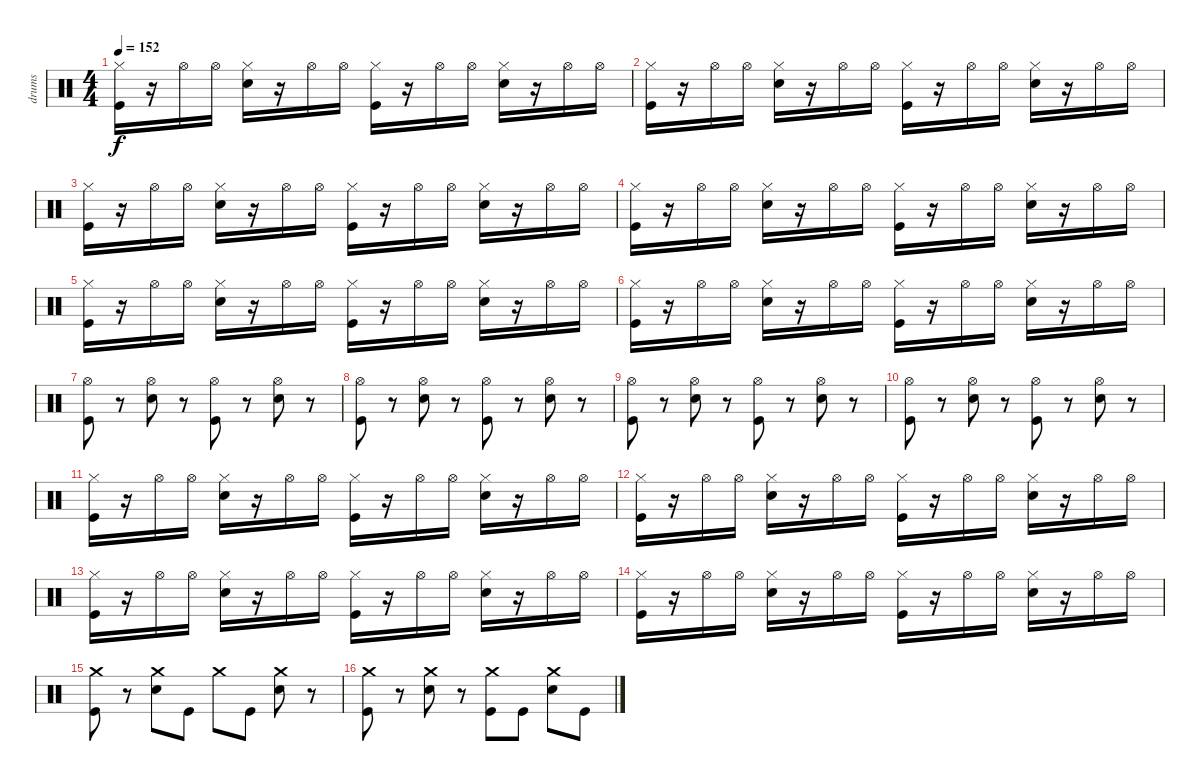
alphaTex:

\track ("drums" "drums") {instrument percussion}
\staff {score}
\articulation defaults
\ts (4 4)
\tempo 152
\clef neutral
\ks c
("Hi-Hat (closed)" "Kick (hit)").16{dy f} r.16 "Hi-Hat (open)".16 "Hi-Hat (open)".16 ("Hi-Hat (closed)" "Snare (hit) 2").16 r.16 "Hi-Hat (open)".16 "Hi-Hat (open)".16 ("Hi-Hat (closed)" "Kick (hit)").16 r.16 "Hi-Hat (open)".16 "Hi-Hat (open)".16 ("Hi-Hat (closed)" "Snare (hit) 2").16 r.16 "Hi-Hat (open)".16 "Hi-Hat (open)".16 |
("Hi-Hat (closed)" "Kick (hit)").16 r.16 "Hi-Hat (open)".16 "Hi-Hat (open)".16 ("Hi-Hat (closed)" "Snare (hit) 2").16 r.16 "Hi-Hat (open)".16 "Hi-Hat (open)".16 ("Hi-Hat (closed)" "Kick (hit)").16 r.16 "Hi-Hat (open)".16 "Hi-Hat (open)".16 ("Hi-Hat (closed)" "Snare (hit) 2").16 r.16 "Hi-Hat (open)".16 "Hi-Hat (open)".16 |
("Hi-Hat (closed)" "Kick (hit)").16 r.16 "Hi-Hat (open)".16 "Hi-Hat (open)".16 ("Hi-Hat (closed)" "Snare (hit) 2").16 r.16 "Hi-Hat (open)".16 "Hi-Hat (open)".16 ("Hi-Hat (closed)" "Kick (hit)").16 r.16 "Hi-Hat (open)".16 "Hi-Hat (open)".16 ("Hi-Hat (closed)" "Snare (hit) 2").16 r.16 "Hi-Hat (open)".16 "Hi-Hat (open)".16 |
("Hi-Hat (closed)" "Kick (hit)").16 r.16 "Hi-Hat (open)".16 "Hi-Hat (open)".16 ("Hi-Hat (closed)" "Snare (hit) 2").16 r.16 "Hi-Hat (open)".16 "Hi-Hat (open)".16 ("Hi-Hat (closed)" "Kick (hit)").16 r.16 "Hi-Hat (open)".16 "Hi-Hat (open)".16 ("Hi-Hat (closed)" "Snare (hit) 2").16 r.16 "Hi-Hat (open)".16 "Hi-Hat (open)".16 |
("Hi-Hat (closed)" "Kick (hit)").16 r.16 "Hi-Hat (open)".16 "Hi-Hat (open)".16 ("Hi-Hat (closed)" "Snare (hit) 2").16 r.16 "Hi-Hat (open)".16 "Hi-Hat (open)".16 ("Hi-Hat (closed)" "Kick (hit)").16 r.16 "Hi-Hat (open)".16 "Hi-Hat (open)".16 ("Hi-Hat (closed)" "Snare (hit) 2").16 r.16 "Hi-Hat (open)".16 "Hi-Hat (open)".16 |
("Hi-Hat (closed)" "Kick (hit)").16 r.16 "Hi-Hat (open)".16 "Hi-Hat (open)".16 ("Hi-Hat (closed)" "Snare (hit) 2").16 r.16 "Hi-Hat (open)".16 "Hi-Hat (open)".16 ("Hi-Hat (closed)" "Kick (hit)").16 r.16 "Hi-Hat (open)".16 "Hi-Hat (open)".16 ("Hi-Hat (closed)" "Snare (hit) 2").16 r.16 "Hi-Hat (open)".16 "Hi-Hat (open)".16 |
("Hi-Hat (open)" "Kick (hit)").8 r.8 ("Hi-Hat (open)" "Snare (hit) 2").8 r.8 ("Hi-Hat (open)" "Kick (hit)").8 r.8 ("Hi-Hat (open)" "Snare (hit) 2").8 r.8 |
("Hi-Hat (open)" "Kick (hit)").8 r.8 ("Hi-Hat (open)" "Snare (hit) 2").8 r.8 ("Hi-Hat (open)" "Kick (hit)").8 r.8 ("Hi-Hat (open)" "Snare (hit) 2").8 r.8 |
("Hi-Hat (open)" "Kick (hit)").8 r.8 ("Hi-Hat (open)" "Snare (hit) 2").8 r.8 ("Hi-Hat (open)" "Kick (hit)").8 r.8 ("Hi-Hat (open)" "Snare (hit) 2").8 r.8 |
("Hi-Hat (open)" "Kick (hit)").8 r.8 ("Hi-Hat (open)" "Snare (hit) 2").8 r.8 ("Hi-Hat (open)" "Kick (hit)").8 r.8 ("Hi-Hat (open)" "Snare (hit) 2").8 r.8 |
("Hi-Hat (closed)" "Kick (hit)").16 r.16 "Hi-Hat (open)".16 "Hi-Hat (open)".16 ("Hi-Hat (closed)" "Snare (hit) 2").16 r.16 "Hi-Hat (open)".16 "Hi-Hat (open)".16 ("Hi-Hat (closed)" "Kick (hit)").16 r.16 "Hi-Hat (open)".16 "Hi-Hat (open)".16 ("Hi-Hat (closed)" "Snare (hit) 2").16 r.16 "Hi-Hat (open)".16 "Hi-Hat (open)".16 |
("Hi-Hat (closed)" "Kick (hit)").16 r.16 "Hi-Hat (open)".16 "Hi-Hat (open)".16 ("Hi-Hat (closed)" "Snare (hit) 2").16 r.16 "Hi-Hat (open)".16 "Hi-Hat (open)".16 ("Hi-Hat (closed)" "Kick (hit)").16 r.16 "Hi-Hat (open)".16 "Hi-Hat (open)".16 ("Hi-Hat (closed)" "Snare (hit) 2").16 r.16 "Hi-Hat (open)".16 "Hi-Hat (open)".16 |
("Hi-Hat (closed)" "Kick (hit)").16 r.16 "Hi-Hat (open)".16 "Hi-Hat (open)".16 ("Hi-Hat (closed)" "Snare (hit) 2").16 r.16 "Hi-Hat (open)".16 "Hi-Hat (open)".16 ("Hi-Hat (closed)" "Kick (hit)").16 r.16 "Hi-Hat (open)".16 "Hi-Hat (open)".16 ("Hi-Hat (closed)" "Snare (hit) 2").16 r.16 "Hi-Hat (open)".16 "Hi-Hat (open)".16 |
("Hi-Hat (closed)" "Kick (hit)").16 r.16 "Hi-Hat (open)".16 "Hi-Hat (open)".16 ("Hi-Hat (closed)" "Snare (hit) 2").16 r.16 "Hi-Hat (open)".16 "Hi-Hat (open)".16 ("Hi-Hat (closed)" "Kick (hit)").16 r.16 "Hi-Hat (open)".16 "Hi-Hat (open)".16 ("Hi-Hat (closed)" "Snare (hit) 2").16 r.16 "Hi-Hat (open)".16 "Hi-Hat (open)".16 |
("Crash medium (hit)" "Kick (hit)").8 r.8 ("Crash medium (hit)" "Snare (hit) 2").8 "Kick (hit)".8 "Crash medium (hit)".8 "Kick (hit)".8 ("Crash medium (hit)" "Snare (hit) 2").8 r.8 |
("Crash medium (hit)" "Kick (hit)").8 r.8 ("Crash medium (hit)" "Snare (hit) 2").8 r.8 ("Crash medium (hit)" "Kick (hit)").8 "Kick (hit)".8 ("Crash medium (hit)" "Snare (hit) 2").8 "Kick (hit)".8
